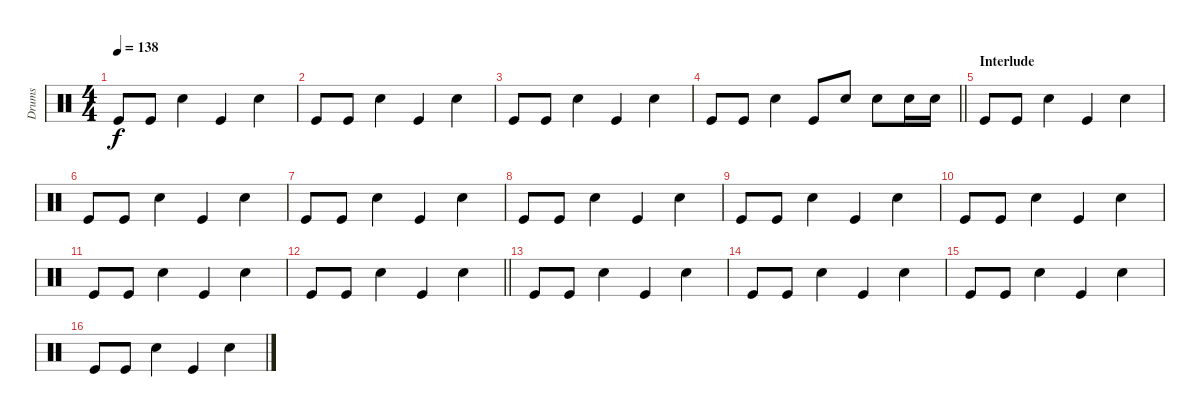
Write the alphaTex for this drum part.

\track ("Drums" "Drums") {instrument percussion}
\staff {score}
\articulation defaults
\ts (4 4)
\tempo 138
\clef neutral
\ks c "Kick (hit)".8{dy f} "Kick (hit)".8 "Snare (hit) 2".4 "Kick (hit)".4 "Snare (hit) 2".4
|
"Kick (hit)".8 "Kick (hit)".8 "Snare (hit) 2".4 "Kick (hit)".4 "Snare (hit) 2".4 |
"Kick (hit)".8 "Kick (hit)".8 "Snare (hit) 2".4 "Kick (hit)".4 "Snare (hit) 2".4 |
\barLineRight lightlight "Kick (hit)".8 "Kick (hit)".8 "Snare (hit) 2".4 "Kick (hit)".8 "Snare (hit) 2".8 "Snare (hit) 2".8 "Snare (hit) 2".16 "Snare (hit) 2".16
|
\section ("" "Interlude")
"Kick (hit)".8 "Kick (hit)".8 "Snare (hit) 2".4 "Kick (hit)".4 "Snare (hit) 2".4 |
"Kick (hit)".8 "Kick (hit)".8 "Snare (hit) 2".4 "Kick (hit)".4 "Snare (hit) 2".4 |
"Kick (hit)".8 "Kick (hit)".8 "Snare (hit) 2".4 "Kick (hit)".4 "Snare (hit) 2".4 |
"Kick (hit)".8 "Kick (hit)".8 "Snare (hit) 2".4 "Kick (hit)".4 "Snare (hit) 2".4 |
"Kick (hit)".8 "Kick (hit)".8 "Snare (hit) 2".4 "Kick (hit)".4 "Snare (hit) 2".4 |
"Kick (hit)".8 "Kick (hit)".8 "Snare (hit) 2".4 "Kick (hit)".4 "Snare (hit) 2".4 |
"Kick (hit)".8 "Kick (hit)".8 "Snare (hit) 2".4 "Kick (hit)".4 "Snare (hit) 2".4 |
\barLineRight lightlight "Kick (hit)".8 "Kick (hit)".8 "Snare (hit) 2".4 "Kick (hit)".4 "Snare (hit) 2".4
|
"Kick (hit)".8 "Kick (hit)".8 "Snare (hit) 2".4 "Kick (hit)".4 "Snare (hit) 2".4 |
"Kick (hit)".8 "Kick (hit)".8 "Snare (hit) 2".4 "Kick (hit)".4 "Snare (hit) 2".4 |
"Kick (hit)".8 "Kick (hit)".8 "Snare (hit) 2".4 "Kick (hit)".4 "Snare (hit) 2".4 |
"Kick (hit)".8 "Kick (hit)".8 "Snare (hit) 2".4 "Kick (hit)".4 "Snare (hit) 2".4
